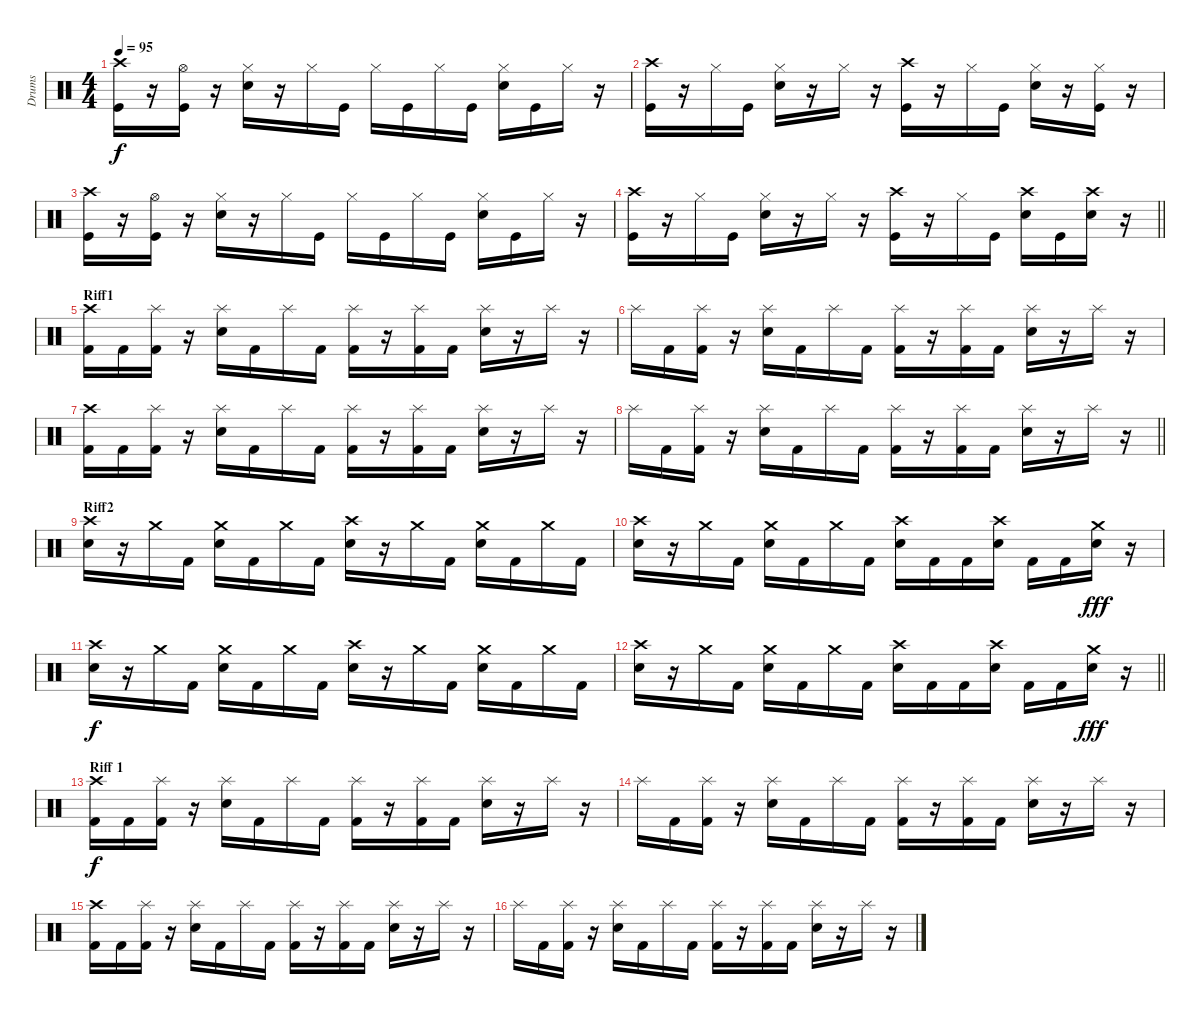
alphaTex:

\track ("Drums" "Drums") {instrument percussion}
\staff {score}
\articulation defaults
\ts (4 4)
\tempo 95
\clef neutral
\ks c
("Crash high (hit)" "Kick (hit)").16{dy f} r.16 ("Hi-Hat (open)" "Kick (hit)").16 r.16 ("Hi-Hat (closed)" "Electric Snare (hit)").16 r.16 "Hi-Hat (closed)".16 "Kick (hit)".16 "Hi-Hat (closed)".16 "Kick (hit)".16 "Hi-Hat (closed)".16 "Kick (hit)".16 ("Hi-Hat (closed)" "Electric Snare (hit)").16 "Kick (hit)".16 "Hi-Hat (closed)".16 r.16 |
("Crash high (hit)" "Kick (hit)").16 r.16 "Hi-Hat (closed)".16 "Kick (hit)".16 ("Hi-Hat (closed)" "Electric Snare (hit)").16 r.16 "Hi-Hat (closed)".16 r.16 ("Crash high (hit)" "Kick (hit)").16 r.16 "Hi-Hat (closed)".16 "Kick (hit)".16 ("Hi-Hat (closed)" "Electric Snare (hit)").16 r.16 ("Hi-Hat (closed)" "Kick (hit)").16 r.16 |
("Crash high (hit)" "Kick (hit)").16 r.16 ("Hi-Hat (open)" "Kick (hit)").16 r.16 ("Hi-Hat (closed)" "Electric Snare (hit)").16 r.16 "Hi-Hat (closed)".16 "Kick (hit)".16 "Hi-Hat (closed)".16 "Kick (hit)".16 "Hi-Hat (closed)".16 "Kick (hit)".16 ("Hi-Hat (closed)" "Electric Snare (hit)").16 "Kick (hit)".16 "Hi-Hat (closed)".16 r.16 |
\barLineRight lightlight
("Crash high (hit)" "Kick (hit)").16 r.16 "Hi-Hat (closed)".16 "Kick (hit)".16 ("Hi-Hat (closed)" "Electric Snare (hit)").16 r.16 "Hi-Hat (closed)".16 r.16 ("Crash high (hit)" "Kick (hit)").16 r.16 "Hi-Hat (closed)".16 "Kick (hit)".16 ("Crash high (hit)" "Electric Snare (hit)").16 "Kick (hit)".16 ("Crash high (hit)" "Electric Snare (hit)").16 r.16 |
\section ("" "Riff1")
("Crash high (hit)" "Kick (hit) 2").16 "Kick (hit) 2".16 ("Splash (hit)" "Kick (hit) 2").16 r.16 ("Splash (hit)" "Electric Snare (hit)").16 "Kick (hit) 2".16 "Splash (hit)".16 "Kick (hit) 2".16 ("Splash (hit)" "Kick (hit) 2").16 r.16 ("Splash (hit)" "Kick (hit) 2").16 "Kick (hit) 2".16 ("Splash (hit)" "Electric Snare (hit)").16 r.16 "Splash (hit)".16 r.16 |
"Splash (hit)".16 "Kick (hit) 2".16 ("Splash (hit)" "Kick (hit) 2").16 r.16 ("Splash (hit)" "Electric Snare (hit)").16 "Kick (hit) 2".16 "Splash (hit)".16 "Kick (hit) 2".16 ("Splash (hit)" "Kick (hit) 2").16 r.16 ("Splash (hit)" "Kick (hit) 2").16 "Kick (hit) 2".16 ("Splash (hit)" "Electric Snare (hit)").16 r.16 "Splash (hit)".16 r.16 |
("Crash high (hit)" "Kick (hit) 2").16 "Kick (hit) 2".16 ("Splash (hit)" "Kick (hit) 2").16 r.16 ("Splash (hit)" "Electric Snare (hit)").16 "Kick (hit) 2".16 "Splash (hit)".16 "Kick (hit) 2".16 ("Splash (hit)" "Kick (hit) 2").16 r.16 ("Splash (hit)" "Kick (hit) 2").16 "Kick (hit) 2".16 ("Splash (hit)" "Electric Snare (hit)").16 r.16 "Splash (hit)".16 r.16 |
\barLineRight lightlight "Splash (hit)".16 "Kick (hit) 2".16
("Splash (hit)" "Kick (hit) 2").16 r.16 ("Splash (hit)" "Electric Snare (hit)").16 "Kick (hit) 2".16 "Splash (hit)".16 "Kick (hit) 2".16 ("Splash (hit)" "Kick (hit) 2").16 r.16 ("Splash (hit)" "Kick (hit) 2").16 "Kick (hit) 2".16 ("Splash (hit)" "Electric Snare (hit)").16 r.16 "Splash (hit)".16 r.16 |
\section ("" "Riff2")
("Crash high (hit)" "Electric Snare (hit)").16 r.16 "Crash medium (hit)".16 "Kick (hit) 2".16 ("Crash medium (hit)" "Electric Snare (hit)").16 "Kick (hit) 2".16 "Crash medium (hit)".16 "Kick (hit) 2".16 ("Crash high (hit)" "Electric Snare (hit)").16 r.16 "Crash medium (hit)".16 "Kick (hit) 2".16 ("Crash medium (hit)" "Electric Snare (hit)").16 "Kick (hit) 2".16 "Crash medium (hit)".16 "Kick (hit) 2".16 |
("Crash high (hit)" "Electric Snare (hit)").16 r.16 "Crash medium (hit)".16 "Kick (hit) 2".16 ("Crash medium (hit)" "Electric Snare (hit)").16 "Kick (hit) 2".16 "Crash medium (hit)".16 "Kick (hit) 2".16 ("Crash high (hit)" "Electric Snare (hit)").16 "Kick (hit) 2".16 "Kick (hit) 2".16 ("Crash high (hit)" "Electric Snare (hit)").16 "Kick (hit) 2".16 "Kick (hit) 2".16 ("Crash medium (hit)" "Electric Snare (hit)").16{dy fff} r.16 |
("Crash high (hit)" "Electric Snare (hit)").16{dy f} r.16 "Crash medium (hit)".16 "Kick (hit) 2".16 ("Crash medium (hit)" "Electric Snare (hit)").16 "Kick (hit) 2".16 "Crash medium (hit)".16 "Kick (hit) 2".16 ("Crash high (hit)" "Electric Snare (hit)").16 r.16 "Crash medium (hit)".16 "Kick (hit) 2".16 ("Crash medium (hit)" "Electric Snare (hit)").16 "Kick (hit) 2".16 "Crash medium (hit)".16 "Kick (hit) 2".16 |
\barLineRight lightlight
("Crash high (hit)" "Electric Snare (hit)").16 r.16 "Crash medium (hit)".16 "Kick (hit) 2".16 ("Crash medium (hit)" "Electric Snare (hit)").16 "Kick (hit) 2".16 "Crash medium (hit)".16 "Kick (hit) 2".16 ("Crash high (hit)" "Electric Snare (hit)").16 "Kick (hit) 2".16 "Kick (hit) 2".16 ("Crash high (hit)" "Electric Snare (hit)").16 "Kick (hit) 2".16 "Kick (hit) 2".16 ("Crash medium (hit)" "Electric Snare (hit)").16{dy fff} r.16 |
\section ("" "Riff 1")
("Crash high (hit)" "Kick (hit) 2").16{dy f} "Kick (hit) 2".16 ("Splash (hit)" "Kick (hit) 2").16 r.16 ("Splash (hit)" "Electric Snare (hit)").16 "Kick (hit) 2".16 "Splash (hit)".16 "Kick (hit) 2".16 ("Splash (hit)" "Kick (hit) 2").16 r.16 ("Splash (hit)" "Kick (hit) 2").16 "Kick (hit) 2".16 ("Splash (hit)" "Electric Snare (hit)").16 r.16 "Splash (hit)".16 r.16 |
"Splash (hit)".16 "Kick (hit) 2".16 ("Splash (hit)" "Kick (hit) 2").16 r.16 ("Splash (hit)" "Electric Snare (hit)").16 "Kick (hit) 2".16 "Splash (hit)".16 "Kick (hit) 2".16 ("Splash (hit)" "Kick (hit) 2").16 r.16 ("Splash (hit)" "Kick (hit) 2").16 "Kick (hit) 2".16 ("Splash (hit)" "Electric Snare (hit)").16 r.16 "Splash (hit)".16 r.16 |
("Crash high (hit)" "Kick (hit) 2").16 "Kick (hit) 2".16 ("Splash (hit)" "Kick (hit) 2").16 r.16 ("Splash (hit)" "Electric Snare (hit)").16 "Kick (hit) 2".16 "Splash (hit)".16 "Kick (hit) 2".16 ("Splash (hit)" "Kick (hit) 2").16 r.16 ("Splash (hit)" "Kick (hit) 2").16 "Kick (hit) 2".16 ("Splash (hit)" "Electric Snare (hit)").16 r.16 "Splash (hit)".16 r.16 |
"Splash (hit)".16 "Kick (hit) 2".16 ("Splash (hit)" "Kick (hit) 2").16 r.16 ("Splash (hit)" "Electric Snare (hit)").16 "Kick (hit) 2".16 "Splash (hit)".16 "Kick (hit) 2".16 ("Splash (hit)" "Kick (hit) 2").16 r.16 ("Splash (hit)" "Kick (hit) 2").16 "Kick (hit) 2".16 ("Splash (hit)" "Electric Snare (hit)").16 r.16 "Splash (hit)".16 r.16
